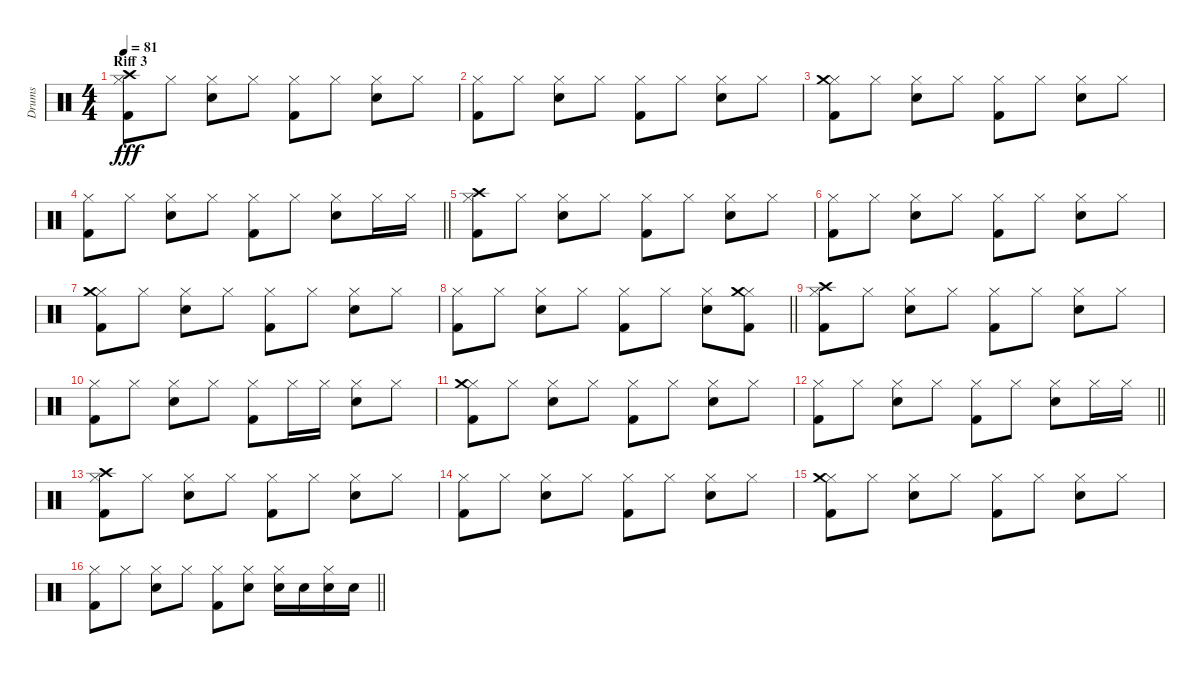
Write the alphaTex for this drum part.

\track ("Drums" "Drums") {instrument percussion}
\staff {score}
\articulation defaults
\ts (4 4)
\section ("" "Riff 3")
\tempo 81
\clef neutral
\ks c
("Hi-Hat (closed)" "Crash high (hit)" "Kick (hit) 2").8{dy fff} "Hi-Hat (closed)".8 ("Hi-Hat (closed)" "Electric Snare (hit)").8 "Hi-Hat (closed)".8 ("Hi-Hat (closed)" "Kick (hit) 2").8 "Hi-Hat (closed)".8 ("Hi-Hat (closed)" "Electric Snare (hit)").8 "Hi-Hat (closed)".8 |
("Hi-Hat (closed)" "Kick (hit) 2").8 "Hi-Hat (closed)".8 ("Hi-Hat (closed)" "Electric Snare (hit)").8 "Hi-Hat (closed)".8 ("Hi-Hat (closed)" "Kick (hit) 2").8 "Hi-Hat (closed)".8 ("Hi-Hat (closed)" "Electric Snare (hit)").8 "Hi-Hat (closed)".8 |
("Hi-Hat (closed)" "Crash medium (hit)" "Kick (hit) 2").8 "Hi-Hat (closed)".8 ("Hi-Hat (closed)" "Electric Snare (hit)").8 "Hi-Hat (closed)".8 ("Hi-Hat (closed)" "Kick (hit) 2").8 "Hi-Hat (closed)".8 ("Hi-Hat (closed)" "Electric Snare (hit)").8 "Hi-Hat (closed)".8 |
\barLineRight lightlight
("Hi-Hat (closed)" "Kick (hit) 2").8 "Hi-Hat (closed)".8 ("Hi-Hat (closed)" "Electric Snare (hit)").8 "Hi-Hat (closed)".8 ("Hi-Hat (closed)" "Kick (hit) 2").8 "Hi-Hat (closed)".8 ("Hi-Hat (closed)" "Electric Snare (hit)").8 "Hi-Hat (closed)".16 "Hi-Hat (closed)".16 |
("Hi-Hat (closed)" "Crash high (hit)" "Kick (hit) 2").8 "Hi-Hat (closed)".8 ("Hi-Hat (closed)" "Electric Snare (hit)").8 "Hi-Hat (closed)".8 ("Hi-Hat (closed)" "Kick (hit) 2").8 "Hi-Hat (closed)".8 ("Hi-Hat (closed)" "Electric Snare (hit)").8 "Hi-Hat (closed)".8 |
("Hi-Hat (closed)" "Kick (hit) 2").8 "Hi-Hat (closed)".8 ("Hi-Hat (closed)" "Electric Snare (hit)").8 "Hi-Hat (closed)".8 ("Hi-Hat (closed)" "Kick (hit) 2").8 "Hi-Hat (closed)".8 ("Hi-Hat (closed)" "Electric Snare (hit)").8 "Hi-Hat (closed)".8 |
("Hi-Hat (closed)" "Crash medium (hit)" "Kick (hit) 2").8 "Hi-Hat (closed)".8 ("Hi-Hat (closed)" "Electric Snare (hit)").8 "Hi-Hat (closed)".8 ("Hi-Hat (closed)" "Kick (hit) 2").8 "Hi-Hat (closed)".8 ("Hi-Hat (closed)" "Electric Snare (hit)").8 "Hi-Hat (closed)".8 |
\barLineRight lightlight
("Hi-Hat (closed)" "Kick (hit) 2").8 "Hi-Hat (closed)".8 ("Hi-Hat (closed)" "Electric Snare (hit)").8 "Hi-Hat (closed)".8 ("Hi-Hat (closed)" "Kick (hit) 2").8 "Hi-Hat (closed)".8 ("Hi-Hat (closed)" "Electric Snare (hit)").8 ("Hi-Hat (closed)" "Crash medium (hit)" "Kick (hit) 2").8 |
("Hi-Hat (closed)" "Crash high (hit)" "Kick (hit) 2").8 "Hi-Hat (closed)".8 ("Hi-Hat (closed)" "Electric Snare (hit)").8 "Hi-Hat (closed)".8 ("Hi-Hat (closed)" "Kick (hit) 2").8 "Hi-Hat (closed)".8 ("Hi-Hat (closed)" "Electric Snare (hit)").8 "Hi-Hat (closed)".8 |
("Hi-Hat (closed)" "Kick (hit) 2").8 "Hi-Hat (closed)".8 ("Hi-Hat (closed)" "Electric Snare (hit)").8 "Hi-Hat (closed)".8 ("Hi-Hat (closed)" "Kick (hit) 2").8 "Hi-Hat (closed)".16 "Hi-Hat (closed)".16 ("Hi-Hat (closed)" "Electric Snare (hit)").8 "Hi-Hat (closed)".8 |
("Hi-Hat (closed)" "Crash medium (hit)" "Kick (hit) 2").8 "Hi-Hat (closed)".8 ("Hi-Hat (closed)" "Electric Snare (hit)").8 "Hi-Hat (closed)".8 ("Hi-Hat (closed)" "Kick (hit) 2").8 "Hi-Hat (closed)".8 ("Hi-Hat (closed)" "Electric Snare (hit)").8 "Hi-Hat (closed)".8 |
\barLineRight lightlight
("Hi-Hat (closed)" "Kick (hit) 2").8 "Hi-Hat (closed)".8 ("Hi-Hat (closed)" "Electric Snare (hit)").8 "Hi-Hat (closed)".8 ("Hi-Hat (closed)" "Kick (hit) 2").8 "Hi-Hat (closed)".8 ("Hi-Hat (closed)" "Electric Snare (hit)").8 "Hi-Hat (closed)".16 "Hi-Hat (closed)".16 |
("Hi-Hat (closed)" "Crash high (hit)" "Kick (hit) 2").8 "Hi-Hat (closed)".8 ("Hi-Hat (closed)" "Electric Snare (hit)").8 "Hi-Hat (closed)".8 ("Hi-Hat (closed)" "Kick (hit) 2").8 "Hi-Hat (closed)".8 ("Hi-Hat (closed)" "Electric Snare (hit)").8 "Hi-Hat (closed)".8 |
("Hi-Hat (closed)" "Kick (hit) 2").8 "Hi-Hat (closed)".8 ("Hi-Hat (closed)" "Electric Snare (hit)").8 "Hi-Hat (closed)".8 ("Hi-Hat (closed)" "Kick (hit) 2").8 "Hi-Hat (closed)".8 ("Hi-Hat (closed)" "Electric Snare (hit)").8 "Hi-Hat (closed)".8 |
("Hi-Hat (closed)" "Crash medium (hit)" "Kick (hit) 2").8 "Hi-Hat (closed)".8 ("Hi-Hat (closed)" "Electric Snare (hit)").8 "Hi-Hat (closed)".8 ("Hi-Hat (closed)" "Kick (hit) 2").8 "Hi-Hat (closed)".8 ("Hi-Hat (closed)" "Electric Snare (hit)").8 "Hi-Hat (closed)".8 |
\barLineRight lightlight
("Hi-Hat (closed)" "Kick (hit) 2").8 "Hi-Hat (closed)".8 ("Hi-Hat (closed)" "Electric Snare (hit)").8 "Hi-Hat (closed)".8 ("Hi-Hat (closed)" "Kick (hit) 2").8 ("Hi-Hat (closed)" "Electric Snare (hit)").8 ("Hi-Hat (closed)" "Electric Snare (hit)").16 "Electric Snare (hit)".16 ("Hi-Hat (closed)" "Electric Snare (hit)").16 "Electric Snare (hit)".16
